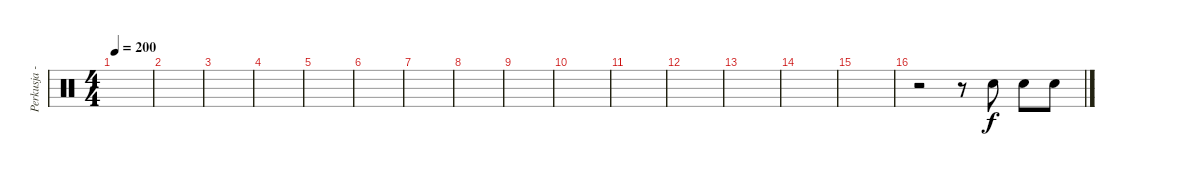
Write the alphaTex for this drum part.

\track ("Perkusja - J. Olejarz" "Perkusja -") {instrument percussion}
\staff {score}
\articulation defaults
\ts (4 4)
\tempo 200
\clef neutral
\ks c
|
|
|
|
|
|
|
|
|
|
|
|
|
|
|
r.2 r.8 "Snare (hit) 2".8 "Snare (hit) 2".8 "Snare (hit) 2".8
